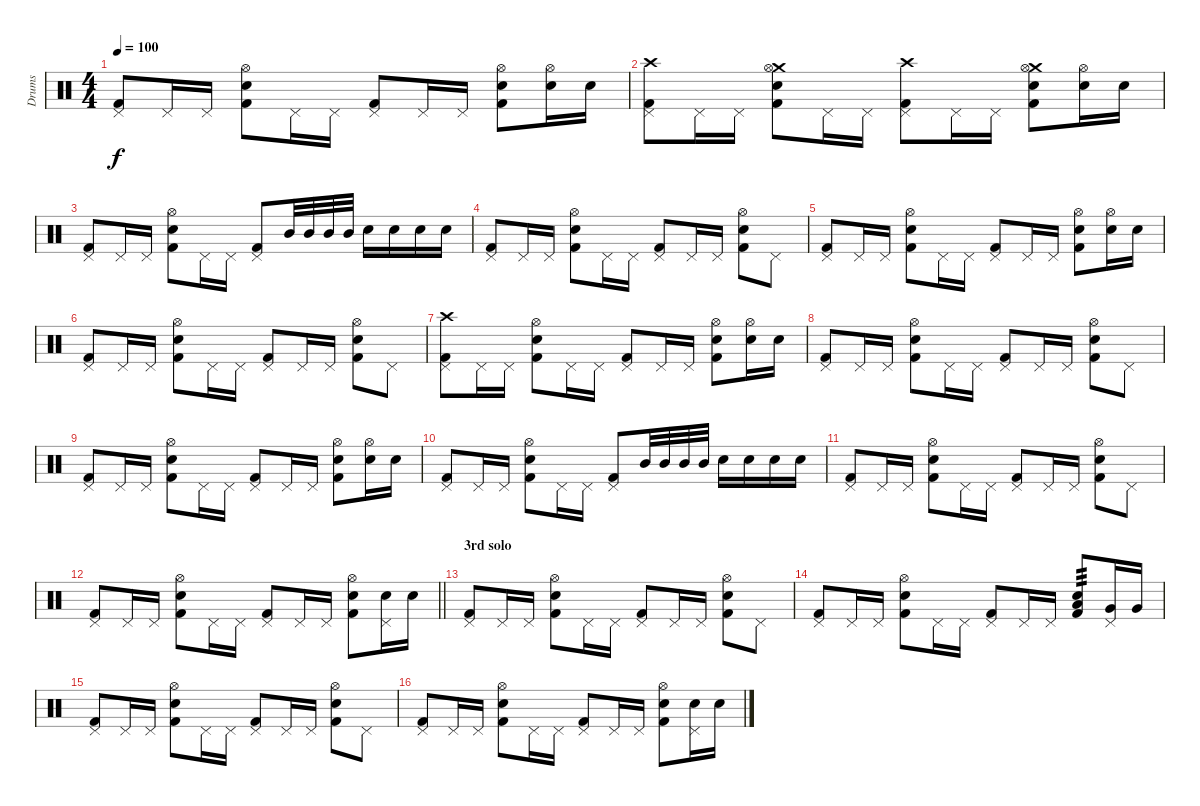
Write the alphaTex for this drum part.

\track ("Drums" "Drums") {instrument percussion}
\staff
\articulation defaults
\ts (4 4)
\tempo 100
\clef neutral
\ks c
("Pedal Hi-Hat (hit)" "Kick (hit) 2").8{dy f} "Pedal Hi-Hat (hit)".16 "Pedal Hi-Hat (hit)".16 ("Electric Snare (hit)" "Hi-Hat (open)" "Kick (hit) 2").8 "Pedal Hi-Hat (hit)".16 "Pedal Hi-Hat (hit)".16 ("Pedal Hi-Hat (hit)" "Kick (hit) 2").8 "Pedal Hi-Hat (hit)".16 "Pedal Hi-Hat (hit)".16 ("Electric Snare (hit)" "Hi-Hat (open)" "Kick (hit) 2").8 ("Hi-Hat (open)" "Electric Snare (hit)").16 "Electric Snare (hit)".16 |
("Crash high (hit)" "Pedal Hi-Hat (hit)" "Kick (hit) 2").8 "Pedal Hi-Hat (hit)".16 "Pedal Hi-Hat (hit)".16 ("Crash medium (hit)" "Electric Snare (hit)" "Hi-Hat (open)" "Kick (hit) 2").8 "Pedal Hi-Hat (hit)".16 "Pedal Hi-Hat (hit)".16 ("Crash high (hit)" "Pedal Hi-Hat (hit)" "Kick (hit) 2").8 "Pedal Hi-Hat (hit)".16 "Pedal Hi-Hat (hit)".16 ("Crash medium (hit)" "Electric Snare (hit)" "Hi-Hat (open)" "Kick (hit) 2").8 ("Hi-Hat (open)" "Electric Snare (hit)").16 "Electric Snare (hit)".16 |
("Pedal Hi-Hat (hit)" "Kick (hit) 2").8 "Pedal Hi-Hat (hit)".16 "Pedal Hi-Hat (hit)".16 ("Electric Snare (hit)" "Hi-Hat (open)" "Kick (hit) 2").8 "Pedal Hi-Hat (hit)".16 "Pedal Hi-Hat (hit)".16 ("Pedal Hi-Hat (hit)" "Kick (hit) 2").8 "Mid Tom (hit)".32 "Mid Tom (hit)".32 "Mid Tom (hit)".32 "Mid Tom (hit)".32 "Electric Snare (hit)".16 "Electric Snare (hit)".16 "Electric Snare (hit)".16 "Electric Snare (hit)".16 |
("Pedal Hi-Hat (hit)" "Kick (hit) 2").8 "Pedal Hi-Hat (hit)".16 "Pedal Hi-Hat (hit)".16 ("Electric Snare (hit)" "Hi-Hat (open)" "Kick (hit) 2").8 "Pedal Hi-Hat (hit)".16 "Pedal Hi-Hat (hit)".16 ("Pedal Hi-Hat (hit)" "Kick (hit) 2").8 "Pedal Hi-Hat (hit)".16 "Pedal Hi-Hat (hit)".16 ("Electric Snare (hit)" "Hi-Hat (open)" "Kick (hit) 2").8 "Pedal Hi-Hat (hit)".8 |
("Pedal Hi-Hat (hit)" "Kick (hit) 2").8 "Pedal Hi-Hat (hit)".16 "Pedal Hi-Hat (hit)".16 ("Electric Snare (hit)" "Hi-Hat (open)" "Kick (hit) 2").8 "Pedal Hi-Hat (hit)".16 "Pedal Hi-Hat (hit)".16 ("Pedal Hi-Hat (hit)" "Kick (hit) 2").8 "Pedal Hi-Hat (hit)".16 "Pedal Hi-Hat (hit)".16 ("Electric Snare (hit)" "Hi-Hat (open)" "Kick (hit) 2").8 ("Hi-Hat (open)" "Electric Snare (hit)").16 "Electric Snare (hit)".16 |
("Pedal Hi-Hat (hit)" "Kick (hit) 2").8 "Pedal Hi-Hat (hit)".16 "Pedal Hi-Hat (hit)".16 ("Electric Snare (hit)" "Hi-Hat (open)" "Kick (hit) 2").8 "Pedal Hi-Hat (hit)".16 "Pedal Hi-Hat (hit)".16 ("Pedal Hi-Hat (hit)" "Kick (hit) 2").8 "Pedal Hi-Hat (hit)".16 "Pedal Hi-Hat (hit)".16 ("Electric Snare (hit)" "Hi-Hat (open)" "Kick (hit) 2").8 "Pedal Hi-Hat (hit)".8 |
("Crash high (hit)" "Pedal Hi-Hat (hit)" "Kick (hit) 2").8 "Pedal Hi-Hat (hit)".16 "Pedal Hi-Hat (hit)".16 ("Electric Snare (hit)" "Hi-Hat (open)" "Kick (hit) 2").8 "Pedal Hi-Hat (hit)".16 "Pedal Hi-Hat (hit)".16 ("Pedal Hi-Hat (hit)" "Kick (hit) 2").8 "Pedal Hi-Hat (hit)".16 "Pedal Hi-Hat (hit)".16 ("Electric Snare (hit)" "Hi-Hat (open)" "Kick (hit) 2").8 ("Hi-Hat (open)" "Electric Snare (hit)").16 "Electric Snare (hit)".16 |
("Pedal Hi-Hat (hit)" "Kick (hit) 2").8 "Pedal Hi-Hat (hit)".16 "Pedal Hi-Hat (hit)".16 ("Electric Snare (hit)" "Hi-Hat (open)" "Kick (hit) 2").8 "Pedal Hi-Hat (hit)".16 "Pedal Hi-Hat (hit)".16 ("Pedal Hi-Hat (hit)" "Kick (hit) 2").8 "Pedal Hi-Hat (hit)".16 "Pedal Hi-Hat (hit)".16 ("Electric Snare (hit)" "Hi-Hat (open)" "Kick (hit) 2").8 "Pedal Hi-Hat (hit)".8 |
("Pedal Hi-Hat (hit)" "Kick (hit) 2").8 "Pedal Hi-Hat (hit)".16 "Pedal Hi-Hat (hit)".16 ("Electric Snare (hit)" "Hi-Hat (open)" "Kick (hit) 2").8 "Pedal Hi-Hat (hit)".16 "Pedal Hi-Hat (hit)".16 ("Pedal Hi-Hat (hit)" "Kick (hit) 2").8 "Pedal Hi-Hat (hit)".16 "Pedal Hi-Hat (hit)".16 ("Electric Snare (hit)" "Hi-Hat (open)" "Kick (hit) 2").8 ("Hi-Hat (open)" "Electric Snare (hit)").16 "Electric Snare (hit)".16 |
("Pedal Hi-Hat (hit)" "Kick (hit) 2").8 "Pedal Hi-Hat (hit)".16 "Pedal Hi-Hat (hit)".16 ("Electric Snare (hit)" "Hi-Hat (open)" "Kick (hit) 2").8 "Pedal Hi-Hat (hit)".16 "Pedal Hi-Hat (hit)".16 ("Pedal Hi-Hat (hit)" "Kick (hit) 2").8 "Mid Tom (hit)".32 "Mid Tom (hit)".32 "Mid Tom (hit)".32 "Mid Tom (hit)".32 "Electric Snare (hit)".16 "Electric Snare (hit)".16 "Electric Snare (hit)".16 "Electric Snare (hit)".16 |
("Pedal Hi-Hat (hit)" "Kick (hit) 2").8 "Pedal Hi-Hat (hit)".16 "Pedal Hi-Hat (hit)".16 ("Electric Snare (hit)" "Hi-Hat (open)" "Kick (hit) 2").8 "Pedal Hi-Hat (hit)".16 "Pedal Hi-Hat (hit)".16 ("Pedal Hi-Hat (hit)" "Kick (hit) 2").8 "Pedal Hi-Hat (hit)".16 "Pedal Hi-Hat (hit)".16 ("Electric Snare (hit)" "Hi-Hat (open)" "Kick (hit) 2").8 "Pedal Hi-Hat (hit)".8 |
\barLineRight lightlight
("Pedal Hi-Hat (hit)" "Kick (hit) 2").8 "Pedal Hi-Hat (hit)".16 "Pedal Hi-Hat (hit)".16 ("Electric Snare (hit)" "Hi-Hat (open)" "Kick (hit) 2").8 "Pedal Hi-Hat (hit)".16 "Pedal Hi-Hat (hit)".16 ("Pedal Hi-Hat (hit)" "Kick (hit) 2").8 "Pedal Hi-Hat (hit)".16 "Pedal Hi-Hat (hit)".16 ("Electric Snare (hit)" "Hi-Hat (open)" "Kick (hit) 2").8 ("Pedal Hi-Hat (hit)" "Electric Snare (hit)").16 "Electric Snare (hit)".16 |
\section ("" "3rd solo")
("Pedal Hi-Hat (hit)" "Kick (hit) 2").8 "Pedal Hi-Hat (hit)".16 "Pedal Hi-Hat (hit)".16 ("Electric Snare (hit)" "Hi-Hat (open)" "Kick (hit) 2").8 "Pedal Hi-Hat (hit)".16 "Pedal Hi-Hat (hit)".16 ("Pedal Hi-Hat (hit)" "Kick (hit) 2").8 "Pedal Hi-Hat (hit)".16 "Pedal Hi-Hat (hit)".16 ("Electric Snare (hit)" "Hi-Hat (open)" "Kick (hit) 2").8 "Pedal Hi-Hat (hit)".8 |
("Pedal Hi-Hat (hit)" "Kick (hit) 2").8 "Pedal Hi-Hat (hit)".16 "Pedal Hi-Hat (hit)".16 ("Electric Snare (hit)" "Hi-Hat (open)" "Kick (hit) 2").8 "Pedal Hi-Hat (hit)".16 "Pedal Hi-Hat (hit)".16 ("Pedal Hi-Hat (hit)" "Kick (hit) 2").8 "Pedal Hi-Hat (hit)".16 "Pedal Hi-Hat (hit)".16 ("Electric Snare (hit)" "Low Tom (hit)" "Kick (hit) 2").8{tp 3} ("Pedal Hi-Hat (hit)" "Very Low Tom (hit)").16 "Very Low Tom (hit)".16 |
("Pedal Hi-Hat (hit)" "Kick (hit) 2").8 "Pedal Hi-Hat (hit)".16 "Pedal Hi-Hat (hit)".16 ("Electric Snare (hit)" "Hi-Hat (open)" "Kick (hit) 2").8 "Pedal Hi-Hat (hit)".16 "Pedal Hi-Hat (hit)".16 ("Pedal Hi-Hat (hit)" "Kick (hit) 2").8 "Pedal Hi-Hat (hit)".16 "Pedal Hi-Hat (hit)".16 ("Electric Snare (hit)" "Hi-Hat (open)" "Kick (hit) 2").8 "Pedal Hi-Hat (hit)".8 |
("Pedal Hi-Hat (hit)" "Kick (hit) 2").8 "Pedal Hi-Hat (hit)".16 "Pedal Hi-Hat (hit)".16 ("Electric Snare (hit)" "Hi-Hat (open)" "Kick (hit) 2").8 "Pedal Hi-Hat (hit)".16 "Pedal Hi-Hat (hit)".16 ("Pedal Hi-Hat (hit)" "Kick (hit) 2").8 "Pedal Hi-Hat (hit)".16 "Pedal Hi-Hat (hit)".16 ("Electric Snare (hit)" "Hi-Hat (open)" "Kick (hit) 2").8 ("Pedal Hi-Hat (hit)" "Electric Snare (hit)").16 "Electric Snare (hit)".16
